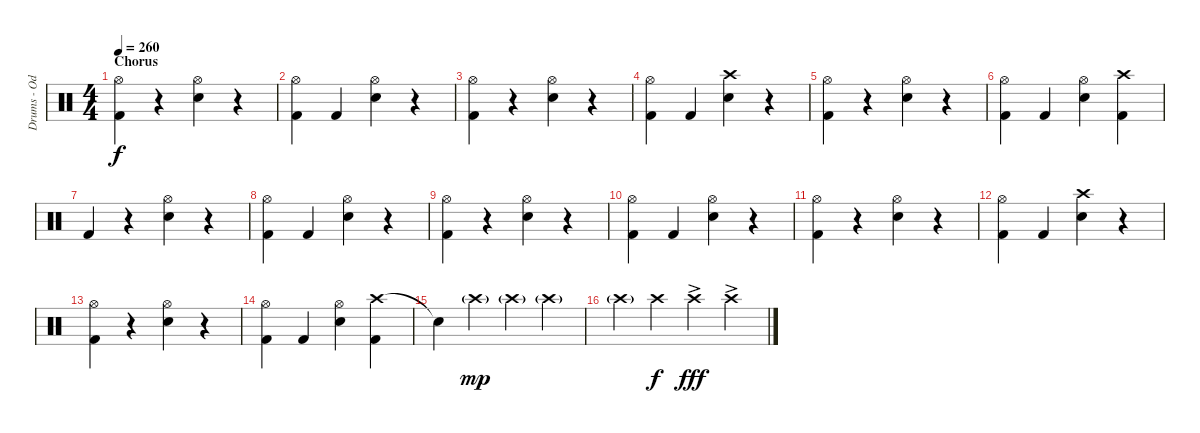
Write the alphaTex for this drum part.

\track ("Drums - Oded Perach" "Drums - Od") {instrument percussion}
\staff {score}
\articulation defaults
\ts (4 4)
\section ("" "Chorus")
\tempo 260
\clef neutral
\ks c
("Hi-Hat (open)" "Kick (hit) 2").4{dy f} r.4 ("Hi-Hat (open)" "Snare (hit) 2").4 r.4 |
("Hi-Hat (open)" "Kick (hit) 2").4 "Kick (hit) 2".4 ("Hi-Hat (open)" "Snare (hit) 2").4 r.4 |
("Hi-Hat (open)" "Kick (hit) 2").4 r.4 ("Hi-Hat (open)" "Snare (hit) 2").4 r.4 |
("Hi-Hat (open)" "Kick (hit) 2").4 "Kick (hit) 2".4 ("Crash high (hit)" "Snare (hit) 2").4 r.4 |
("Hi-Hat (open)" "Kick (hit) 2").4 r.4 ("Hi-Hat (open)" "Snare (hit) 2").4 r.4 |
("Hi-Hat (open)" "Kick (hit) 2").4 "Kick (hit) 2".4 ("Hi-Hat (open)" "Snare (hit) 2").4 ("Crash high (hit)" "Kick (hit) 2").4 |
"Kick (hit) 2".4 r.4 ("Hi-Hat (open)" "Snare (hit) 2").4 r.4 |
("Hi-Hat (open)" "Kick (hit) 2").4 "Kick (hit) 2".4 ("Hi-Hat (open)" "Snare (hit) 2").4 r.4 |
("Hi-Hat (open)" "Kick (hit) 2").4 r.4 ("Hi-Hat (open)" "Snare (hit) 2").4 r.4 |
("Hi-Hat (open)" "Kick (hit) 2").4 "Kick (hit) 2".4 ("Hi-Hat (open)" "Snare (hit) 2").4 r.4 |
("Hi-Hat (open)" "Kick (hit) 2").4 r.4 ("Hi-Hat (open)" "Snare (hit) 2").4 r.4 |
("Hi-Hat (open)" "Kick (hit) 2").4 "Kick (hit) 2".4 ("Crash high (hit)" "Snare (hit) 2").4 r.4 |
("Hi-Hat (open)" "Kick (hit) 2").4 r.4 ("Hi-Hat (open)" "Snare (hit) 2").4 r.4 |
("Hi-Hat (open)" "Kick (hit) 2").4 "Kick (hit) 2".4 ("Hi-Hat (open)" "Snare (hit) 2").4 ("Crash high (hit)" "Kick (hit) 2").4 |
"Snare (hit)"{t}.4 "Crash high (hit)"{g}.4{dy mp} "Crash high (hit)"{g}.4 "Crash high (hit)"{g}.4 |
"Crash high (hit)"{g}.4 "Crash high (hit)".4{dy f} "Crash high (hit)"{ac}.4{dy fff} "Crash high (hit)"{ac}.4
